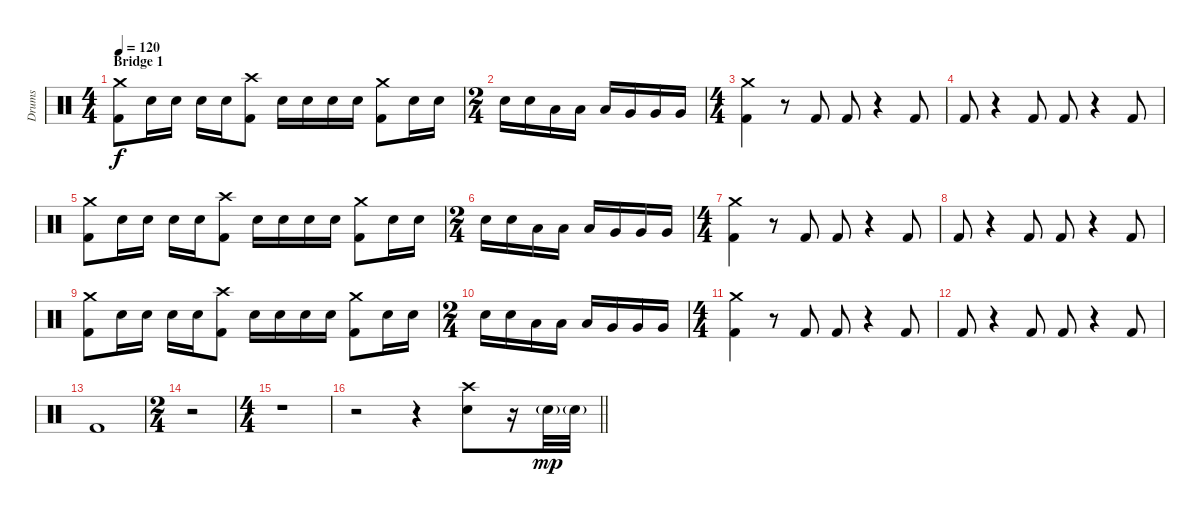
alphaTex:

\track ("Drums" "Drums") {instrument percussion}
\staff {score}
\articulation defaults
\ts (4 4)
\section ("" "Bridge 1")
\tempo 120
\clef neutral
\ks c
("Crash medium (hit)" "Kick (hit) 2").8{dy f} "Electric Snare (hit)".16 "Electric Snare (hit)".16 "Electric Snare (hit)".16 "Electric Snare (hit)".16 ("Crash high (hit)" "Kick (hit) 2").8 "Electric Snare (hit)".16 "Electric Snare (hit)".16 "Electric Snare (hit)".16 "Electric Snare (hit)".16 ("Crash medium (hit)" "Kick (hit) 2").8 "Electric Snare (hit)".16 "Electric Snare (hit)".16 |
\ts (2 4)
"Electric Snare (hit)".16 "Electric Snare (hit)".16 "Low Tom (hit)".16 "Low Tom (hit)".16 "Low Tom (hit)".16 "Very Low Tom (hit)".16 "Very Low Tom (hit)".16 "Very Low Tom (hit)".16 |
\ts (4 4)
("Crash medium (hit)" "Kick (hit) 2").4 r.8 "Kick (hit) 2".8 "Kick (hit) 2".8 r.4 "Kick (hit) 2".8 |
"Kick (hit) 2".8 r.4 "Kick (hit) 2".8 "Kick (hit) 2".8 r.4 "Kick (hit) 2".8 |
("Crash medium (hit)" "Kick (hit) 2").8 "Electric Snare (hit)".16 "Electric Snare (hit)".16 "Electric Snare (hit)".16 "Electric Snare (hit)".16 ("Crash high (hit)" "Kick (hit) 2").8 "Electric Snare (hit)".16 "Electric Snare (hit)".16 "Electric Snare (hit)".16 "Electric Snare (hit)".16 ("Crash medium (hit)" "Kick (hit) 2").8 "Electric Snare (hit)".16 "Electric Snare (hit)".16 |
\ts (2 4)
"Electric Snare (hit)".16 "Electric Snare (hit)".16 "Low Tom (hit)".16 "Low Tom (hit)".16 "Low Tom (hit)".16 "Very Low Tom (hit)".16 "Very Low Tom (hit)".16 "Very Low Tom (hit)".16 |
\ts (4 4)
("Crash medium (hit)" "Kick (hit) 2").4 r.8 "Kick (hit) 2".8 "Kick (hit) 2".8 r.4 "Kick (hit) 2".8 |
"Kick (hit) 2".8 r.4 "Kick (hit) 2".8 "Kick (hit) 2".8 r.4 "Kick (hit) 2".8 |
("Crash medium (hit)" "Kick (hit) 2").8 "Electric Snare (hit)".16 "Electric Snare (hit)".16 "Electric Snare (hit)".16 "Electric Snare (hit)".16 ("Crash high (hit)" "Kick (hit) 2").8 "Electric Snare (hit)".16 "Electric Snare (hit)".16 "Electric Snare (hit)".16 "Electric Snare (hit)".16 ("Crash medium (hit)" "Kick (hit) 2").8 "Electric Snare (hit)".16 "Electric Snare (hit)".16 |
\ts (2 4)
"Electric Snare (hit)".16 "Electric Snare (hit)".16 "Low Tom (hit)".16 "Low Tom (hit)".16 "Low Tom (hit)".16 "Very Low Tom (hit)".16 "Very Low Tom (hit)".16 "Very Low Tom (hit)".16 |
\ts (4 4)
("Crash medium (hit)" "Kick (hit) 2").4 r.8 "Kick (hit) 2".8 "Kick (hit) 2".8 r.4 "Kick (hit) 2".8 |
"Kick (hit) 2".8 r.4 "Kick (hit) 2".8 "Kick (hit) 2".8 r.4 "Kick (hit) 2".8 |
"Kick (hit) 2".1 |
\ts (2 4)
r.2 |
\ts (4 4)
r.1 |
\barLineRight lightlight
r.2 r.4 ("Crash high (hit)" "Electric Snare (hit)").8 r.16 "Electric Snare (hit)"{g}.32{dy mp} "Electric Snare (hit)"{g}.32
